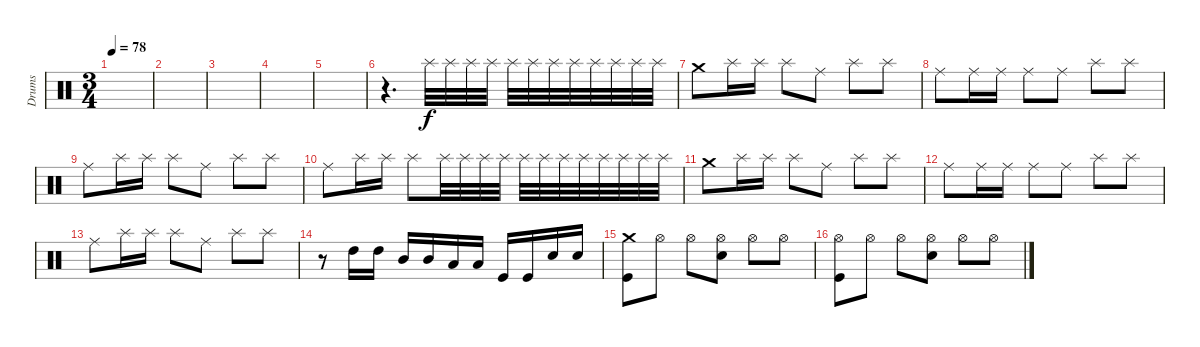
\track ("Drums" "Drums") {instrument percussion}
\staff {score}
\articulation defaults
\ts (3 4)
\tempo 78
\clef neutral
\ks c
|
|
|
|
|
r.4{d} "Splash (hit)".32 "Splash (hit)".32 "Splash (hit)".32 "Splash (hit)".32 "Splash (hit)".32 "Splash (hit)".32 "Splash (hit)".32 "Splash (hit)".32 "Splash (hit)".32 "Splash (hit)".32 "Splash (hit)".32 "Splash (hit)".32 |
"Crash medium (hit)".8 "Splash (hit)".16 "Splash (hit)".16 "Splash (hit)".8 "Ride (middle)".8 "Splash (hit)".8 "Splash (hit)".8 |
"Ride (middle)".8 "Ride (middle)".16 "Ride (middle)".16 "Ride (middle)".8 "Ride (middle)".8 "Splash (hit)".8 "Splash (hit)".8 |
"Ride (middle)".8 "Splash (hit)".16 "Splash (hit)".16 "Splash (hit)".8 "Ride (middle)".8 "Splash (hit)".8 "Splash (hit)".8 |
"Ride (middle)".8 "Splash (hit)".16 "Splash (hit)".16 "Splash (hit)".8 "Splash (hit)".32 "Splash (hit)".32 "Splash (hit)".32 "Splash (hit)".32 "Splash (hit)".32 "Splash (hit)".32 "Splash (hit)".32 "Splash (hit)".32 "Splash (hit)".32 "Splash (hit)".32 "Splash (hit)".32 "Splash (hit)".32 |
"Crash medium (hit)".8 "Splash (hit)".16 "Splash (hit)".16 "Splash (hit)".8 "Ride (middle)".8 "Splash (hit)".8 "Splash (hit)".8 |
"Ride (middle)".8 "Ride (middle)".16 "Ride (middle)".16 "Ride (middle)".8 "Ride (middle)".8 "Splash (hit)".8 "Splash (hit)".8 |
"Ride (middle)".8 "Splash (hit)".16 "Splash (hit)".16 "Splash (hit)".8 "Ride (middle)".8 "Splash (hit)".8 "Splash (hit)".8 |
r.8 "High Tom (hit)".16 "High Tom (hit)".16 "Mid Tom (hit)".16 "Mid Tom (hit)".16 "Low Tom (hit)".16 "Low Tom (hit)".16 "Kick (hit)".16 "Kick (hit)".16 "Snare (hit) 2".16 "Snare (hit) 2".16 |
("Crash medium (hit)" "Kick (hit)").8 "Hi-Hat (open)".8 "Hi-Hat (open)".8 ("Hi-Hat (open)" "Snare (hit) 2").8 "Hi-Hat (open)".8 "Hi-Hat (open)".8 |
("Hi-Hat (open)" "Kick (hit)").8 "Hi-Hat (open)".8 "Hi-Hat (open)".8 ("Hi-Hat (open)" "Snare (hit) 2").8 "Hi-Hat (open)".8 "Hi-Hat (open)".8
